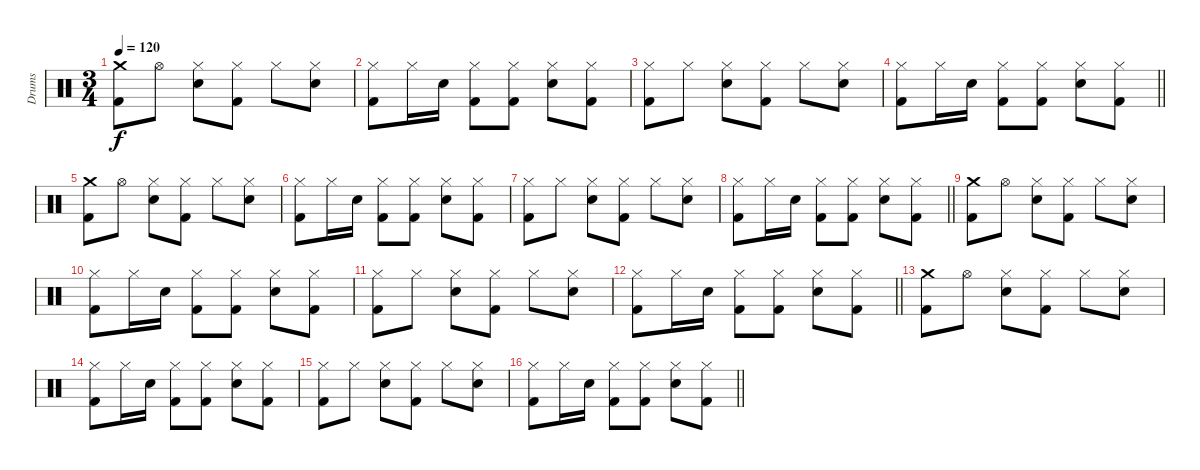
\track ("Drums" "Drums") {instrument percussion}
\staff {score}
\articulation defaults
\ts (3 4)
\tempo 120
\clef neutral
\ks c
("Kick (hit) 2" "Crash medium (hit)").8{dy f} "Hi-Hat (open)".8 ("Electric Snare (hit)" "Hi-Hat (closed)").8 ("Kick (hit) 2" "Hi-Hat (closed)").8 "Hi-Hat (closed)".8 ("Electric Snare (hit)" "Hi-Hat (closed)").8 |
("Kick (hit) 2" "Hi-Hat (closed)").8 "Hi-Hat (closed)".16 "Electric Snare (hit)".16 ("Kick (hit) 2" "Hi-Hat (closed)").8 ("Kick (hit) 2" "Hi-Hat (closed)").8 ("Electric Snare (hit)" "Hi-Hat (closed)").8 ("Kick (hit) 2" "Hi-Hat (closed)").8 |
("Kick (hit) 2" "Hi-Hat (closed)").8 "Hi-Hat (closed)".8 ("Electric Snare (hit)" "Hi-Hat (closed)").8 ("Kick (hit) 2" "Hi-Hat (closed)").8 "Hi-Hat (closed)".8 ("Electric Snare (hit)" "Hi-Hat (closed)").8 |
\barLineRight lightlight
("Kick (hit) 2" "Hi-Hat (closed)").8 "Hi-Hat (closed)".16 "Electric Snare (hit)".16 ("Kick (hit) 2" "Hi-Hat (closed)").8 ("Kick (hit) 2" "Hi-Hat (closed)").8 ("Electric Snare (hit)" "Hi-Hat (closed)").8 ("Kick (hit) 2" "Hi-Hat (closed)").8 |
("Kick (hit) 2" "Crash medium (hit)").8 "Hi-Hat (open)".8 ("Electric Snare (hit)" "Hi-Hat (closed)").8 ("Kick (hit) 2" "Hi-Hat (closed)").8 "Hi-Hat (closed)".8 ("Electric Snare (hit)" "Hi-Hat (closed)").8 |
("Kick (hit) 2" "Hi-Hat (closed)").8 "Hi-Hat (closed)".16 "Electric Snare (hit)".16 ("Kick (hit) 2" "Hi-Hat (closed)").8 ("Kick (hit) 2" "Hi-Hat (closed)").8 ("Electric Snare (hit)" "Hi-Hat (closed)").8 ("Kick (hit) 2" "Hi-Hat (closed)").8 |
("Kick (hit) 2" "Hi-Hat (closed)").8 "Hi-Hat (closed)".8 ("Electric Snare (hit)" "Hi-Hat (closed)").8 ("Kick (hit) 2" "Hi-Hat (closed)").8 "Hi-Hat (closed)".8 ("Electric Snare (hit)" "Hi-Hat (closed)").8 |
\barLineRight lightlight
("Kick (hit) 2" "Hi-Hat (closed)").8 "Hi-Hat (closed)".16 "Electric Snare (hit)".16 ("Kick (hit) 2" "Hi-Hat (closed)").8 ("Kick (hit) 2" "Hi-Hat (closed)").8 ("Electric Snare (hit)" "Hi-Hat (closed)").8 ("Kick (hit) 2" "Hi-Hat (closed)").8 |
("Kick (hit) 2" "Crash medium (hit)").8 "Hi-Hat (open)".8 ("Electric Snare (hit)" "Hi-Hat (closed)").8 ("Kick (hit) 2" "Hi-Hat (closed)").8 "Hi-Hat (closed)".8 ("Electric Snare (hit)" "Hi-Hat (closed)").8 |
("Kick (hit) 2" "Hi-Hat (closed)").8 "Hi-Hat (closed)".16 "Electric Snare (hit)".16 ("Kick (hit) 2" "Hi-Hat (closed)").8 ("Kick (hit) 2" "Hi-Hat (closed)").8 ("Electric Snare (hit)" "Hi-Hat (closed)").8 ("Kick (hit) 2" "Hi-Hat (closed)").8 |
("Kick (hit) 2" "Hi-Hat (closed)").8 "Hi-Hat (closed)".8 ("Electric Snare (hit)" "Hi-Hat (closed)").8 ("Kick (hit) 2" "Hi-Hat (closed)").8 "Hi-Hat (closed)".8 ("Electric Snare (hit)" "Hi-Hat (closed)").8 |
\barLineRight lightlight
("Kick (hit) 2" "Hi-Hat (closed)").8 "Hi-Hat (closed)".16 "Electric Snare (hit)".16 ("Kick (hit) 2" "Hi-Hat (closed)").8 ("Kick (hit) 2" "Hi-Hat (closed)").8 ("Electric Snare (hit)" "Hi-Hat (closed)").8 ("Kick (hit) 2" "Hi-Hat (closed)").8 |
("Kick (hit) 2" "Crash medium (hit)").8 "Hi-Hat (open)".8 ("Electric Snare (hit)" "Hi-Hat (closed)").8 ("Kick (hit) 2" "Hi-Hat (closed)").8 "Hi-Hat (closed)".8 ("Electric Snare (hit)" "Hi-Hat (closed)").8 |
("Kick (hit) 2" "Hi-Hat (closed)").8 "Hi-Hat (closed)".16 "Electric Snare (hit)".16 ("Kick (hit) 2" "Hi-Hat (closed)").8 ("Kick (hit) 2" "Hi-Hat (closed)").8 ("Electric Snare (hit)" "Hi-Hat (closed)").8 ("Kick (hit) 2" "Hi-Hat (closed)").8 |
("Kick (hit) 2" "Hi-Hat (closed)").8 "Hi-Hat (closed)".8 ("Electric Snare (hit)" "Hi-Hat (closed)").8 ("Kick (hit) 2" "Hi-Hat (closed)").8 "Hi-Hat (closed)".8 ("Electric Snare (hit)" "Hi-Hat (closed)").8 |
\barLineRight lightlight
("Kick (hit) 2" "Hi-Hat (closed)").8 "Hi-Hat (closed)".16 "Electric Snare (hit)".16 ("Kick (hit) 2" "Hi-Hat (closed)").8 ("Kick (hit) 2" "Hi-Hat (closed)").8 ("Electric Snare (hit)" "Hi-Hat (closed)").8 ("Kick (hit) 2" "Hi-Hat (closed)").8
